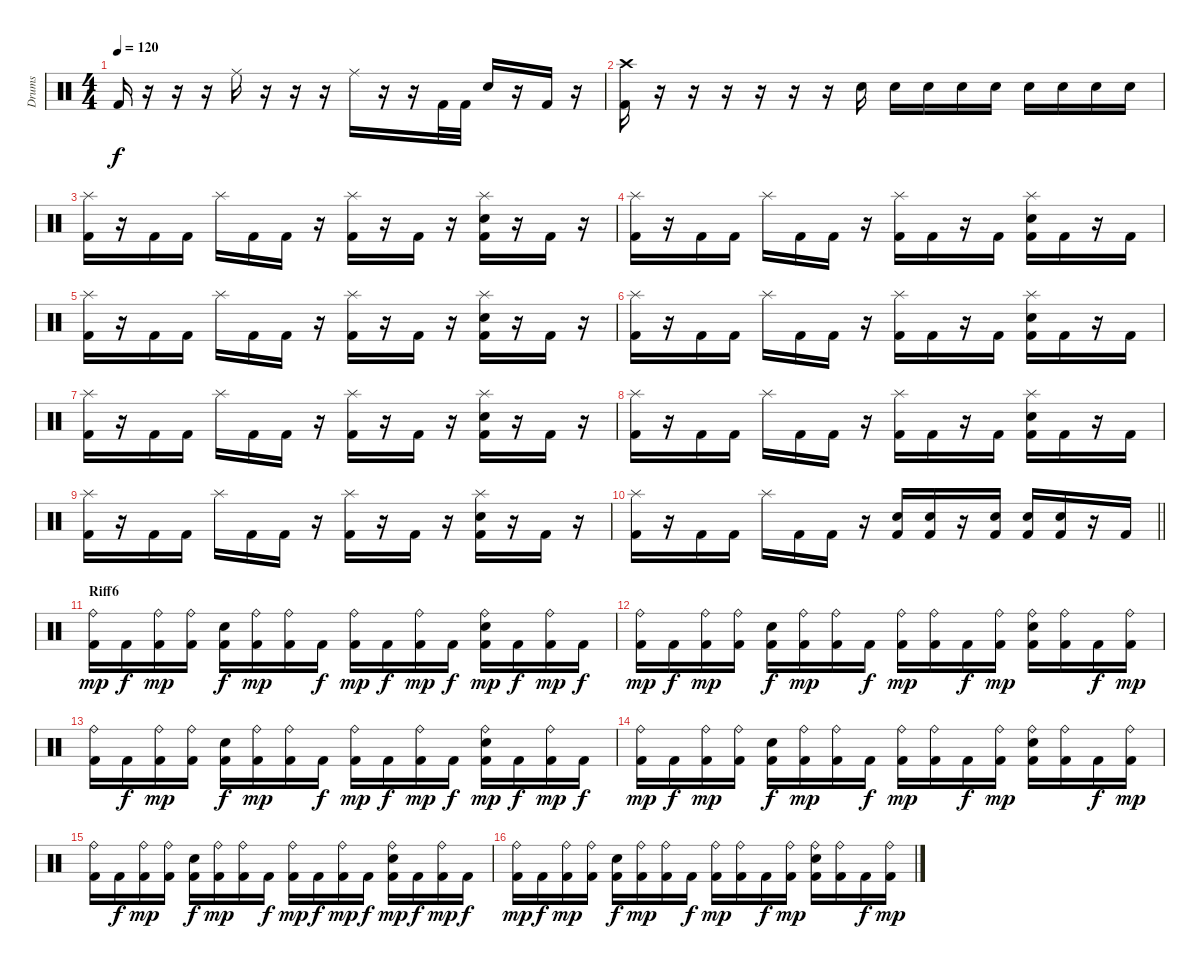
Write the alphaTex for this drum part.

\track ("Drums" "Drums") {instrument percussion}
\staff {score}
\articulation defaults
\ts (4 4)
\tempo 120
\clef neutral
\ks c "Kick (hit) 2".16{dy f}
r.16 r.16 r.16 "Ride (middle)".16 r.16 r.16 r.16 "Ride (middle)".16 r.16 r.16 "Kick (hit) 2".32 "Kick (hit) 2".32 "Snare (hit) 2".16 r.16 "Kick (hit) 2".16 r.16 |
("Kick (hit) 2" "Crash high (hit)").16 r.16 r.16 r.16 r.16 r.16 r.16 "Snare (hit) 2".16 "Snare (hit) 2".16 "Snare (hit) 2".16 "Snare (hit) 2".16 "Snare (hit) 2".16 "Snare (hit) 2".16 "Snare (hit) 2".16 "Snare (hit) 2".16 "Snare (hit) 2".16 |
("Kick (hit) 2" "Splash (hit)").16 r.16 "Kick (hit) 2".16 "Kick (hit) 2".16 "Splash (hit)".16 "Kick (hit) 2".16 "Kick (hit) 2".16 r.16 ("Kick (hit) 2" "Splash (hit)").16 r.16 "Kick (hit) 2".16 r.16 ("Kick (hit) 2" "Splash (hit)" "Snare (hit) 2").16 r.16 "Kick (hit) 2".16 r.16 |
("Kick (hit) 2" "Splash (hit)").16 r.16 "Kick (hit) 2".16 "Kick (hit) 2".16 "Splash (hit)".16 "Kick (hit) 2".16 "Kick (hit) 2".16 r.16 ("Kick (hit) 2" "Splash (hit)").16 "Kick (hit) 2".16 r.16 "Kick (hit) 2".16 ("Kick (hit) 2" "Splash (hit)" "Snare (hit) 2").16 "Kick (hit) 2".16 r.16 "Kick (hit) 2".16 |
("Kick (hit) 2" "Splash (hit)").16 r.16 "Kick (hit) 2".16 "Kick (hit) 2".16 "Splash (hit)".16 "Kick (hit) 2".16 "Kick (hit) 2".16 r.16 ("Kick (hit) 2" "Splash (hit)").16 r.16 "Kick (hit) 2".16 r.16 ("Kick (hit) 2" "Splash (hit)" "Snare (hit) 2").16 r.16 "Kick (hit) 2".16 r.16 |
("Kick (hit) 2" "Splash (hit)").16 r.16 "Kick (hit) 2".16 "Kick (hit) 2".16 "Splash (hit)".16 "Kick (hit) 2".16 "Kick (hit) 2".16 r.16 ("Kick (hit) 2" "Splash (hit)").16 "Kick (hit) 2".16 r.16 "Kick (hit) 2".16 ("Kick (hit) 2" "Splash (hit)" "Snare (hit) 2").16 "Kick (hit) 2".16 r.16 "Kick (hit) 2".16 |
("Kick (hit) 2" "Splash (hit)").16 r.16 "Kick (hit) 2".16 "Kick (hit) 2".16 "Splash (hit)".16 "Kick (hit) 2".16 "Kick (hit) 2".16 r.16 ("Kick (hit) 2" "Splash (hit)").16 r.16 "Kick (hit) 2".16 r.16 ("Kick (hit) 2" "Splash (hit)" "Snare (hit) 2").16 r.16 "Kick (hit) 2".16 r.16 |
("Kick (hit) 2" "Splash (hit)").16 r.16 "Kick (hit) 2".16 "Kick (hit) 2".16 "Splash (hit)".16 "Kick (hit) 2".16 "Kick (hit) 2".16 r.16 ("Kick (hit) 2" "Splash (hit)").16 "Kick (hit) 2".16 r.16 "Kick (hit) 2".16 ("Kick (hit) 2" "Splash (hit)" "Snare (hit) 2").16 "Kick (hit) 2".16 r.16 "Kick (hit) 2".16 |
("Kick (hit) 2" "Splash (hit)").16 r.16 "Kick (hit) 2".16 "Kick (hit) 2".16 "Splash (hit)".16 "Kick (hit) 2".16 "Kick (hit) 2".16 r.16 ("Kick (hit) 2" "Splash (hit)").16 r.16 "Kick (hit) 2".16 r.16 ("Kick (hit) 2" "Splash (hit)" "Snare (hit) 2").16 r.16 "Kick (hit) 2".16 r.16 |
\barLineRight lightlight
("Kick (hit) 2" "Splash (hit)").16 r.16 "Kick (hit) 2".16 "Kick (hit) 2".16 "Splash (hit)".16 "Kick (hit) 2".16 "Kick (hit) 2".16 r.16 ("Kick (hit) 2" "Snare (hit) 2").16 ("Kick (hit) 2" "Snare (hit) 2").16 r.16 ("Kick (hit) 2" "Snare (hit) 2").16 ("Kick (hit) 2" "Snare (hit) 2").16 ("Kick (hit) 2" "Snare (hit) 2").16 r.16 "Kick (hit) 2".16 |
\section ("" "Riff6")
("Kick (hit) 2" "Ride (bell)").16{dy mp} "Kick (hit) 2".16{dy f} ("Kick (hit) 2" "Ride (bell)").16{dy mp} ("Kick (hit) 2" "Ride (bell)").16 ("Kick (hit) 2" "Snare (hit) 2").16{dy f} ("Kick (hit) 2" "Ride (bell)").16{dy mp} ("Kick (hit) 2" "Ride (bell)").16 "Kick (hit) 2".16{dy f} ("Kick (hit) 2" "Ride (bell)").16{dy mp} "Kick (hit) 2".16{dy f} ("Kick (hit) 2" "Ride (bell)").16{dy mp} "Kick (hit) 2".16{dy f} ("Kick (hit) 2" "Ride (bell)" "Snare (hit) 2").16{dy mp} "Kick (hit) 2".16{dy f} ("Kick (hit) 2" "Ride (bell)").16{dy mp} "Kick (hit) 2".16{dy f} |
("Kick (hit) 2" "Ride (bell)").16{dy mp} "Kick (hit) 2".16{dy f} ("Kick (hit) 2" "Ride (bell)").16{dy mp} ("Kick (hit) 2" "Ride (bell)").16 ("Kick (hit) 2" "Snare (hit) 2").16{dy f} ("Kick (hit) 2" "Ride (bell)").16{dy mp} ("Kick (hit) 2" "Ride (bell)").16 "Kick (hit) 2".16{dy f} ("Kick (hit) 2" "Ride (bell)").16{dy mp} ("Kick (hit) 2" "Ride (bell)").16 "Kick (hit) 2".16{dy f} ("Kick (hit) 2" "Ride (bell)").16{dy mp} ("Kick (hit) 2" "Ride (bell)" "Snare (hit) 2").16 ("Kick (hit) 2" "Ride (bell)").16 "Kick (hit) 2".16{dy f} ("Kick (hit) 2" "Ride (bell)").16{dy mp} |
("Kick (hit) 2" "Ride (bell)").16 "Kick (hit) 2".16{dy f} ("Kick (hit) 2" "Ride (bell)").16{dy mp} ("Kick (hit) 2" "Ride (bell)").16 ("Kick (hit) 2" "Snare (hit) 2").16{dy f} ("Kick (hit) 2" "Ride (bell)").16{dy mp} ("Kick (hit) 2" "Ride (bell)").16 "Kick (hit) 2".16{dy f} ("Kick (hit) 2" "Ride (bell)").16{dy mp} "Kick (hit) 2".16{dy f} ("Kick (hit) 2" "Ride (bell)").16{dy mp} "Kick (hit) 2".16{dy f} ("Kick (hit) 2" "Ride (bell)" "Snare (hit) 2").16{dy mp} "Kick (hit) 2".16{dy f} ("Kick (hit) 2" "Ride (bell)").16{dy mp} "Kick (hit) 2".16{dy f} |
("Kick (hit) 2" "Ride (bell)").16{dy mp} "Kick (hit) 2".16{dy f} ("Kick (hit) 2" "Ride (bell)").16{dy mp} ("Kick (hit) 2" "Ride (bell)").16 ("Kick (hit) 2" "Snare (hit) 2").16{dy f} ("Kick (hit) 2" "Ride (bell)").16{dy mp} ("Kick (hit) 2" "Ride (bell)").16 "Kick (hit) 2".16{dy f} ("Kick (hit) 2" "Ride (bell)").16{dy mp} ("Kick (hit) 2" "Ride (bell)").16 "Kick (hit) 2".16{dy f} ("Kick (hit) 2" "Ride (bell)").16{dy mp} ("Kick (hit) 2" "Ride (bell)" "Snare (hit) 2").16 ("Kick (hit) 2" "Ride (bell)").16 "Kick (hit) 2".16{dy f} ("Kick (hit) 2" "Ride (bell)").16{dy mp} |
("Kick (hit) 2" "Ride (bell)").16 "Kick (hit) 2".16{dy f} ("Kick (hit) 2" "Ride (bell)").16{dy mp} ("Kick (hit) 2" "Ride (bell)").16 ("Kick (hit) 2" "Snare (hit) 2").16{dy f} ("Kick (hit) 2" "Ride (bell)").16{dy mp} ("Kick (hit) 2" "Ride (bell)").16 "Kick (hit) 2".16{dy f} ("Kick (hit) 2" "Ride (bell)").16{dy mp} "Kick (hit) 2".16{dy f} ("Kick (hit) 2" "Ride (bell)").16{dy mp} "Kick (hit) 2".16{dy f} ("Kick (hit) 2" "Ride (bell)" "Snare (hit) 2").16{dy mp} "Kick (hit) 2".16{dy f} ("Kick (hit) 2" "Ride (bell)").16{dy mp} "Kick (hit) 2".16{dy f} |
("Kick (hit) 2" "Ride (bell)").16{dy mp} "Kick (hit) 2".16{dy f} ("Kick (hit) 2" "Ride (bell)").16{dy mp} ("Kick (hit) 2" "Ride (bell)").16 ("Kick (hit) 2" "Snare (hit) 2").16{dy f} ("Kick (hit) 2" "Ride (bell)").16{dy mp} ("Kick (hit) 2" "Ride (bell)").16 "Kick (hit) 2".16{dy f} ("Kick (hit) 2" "Ride (bell)").16{dy mp} ("Kick (hit) 2" "Ride (bell)").16 "Kick (hit) 2".16{dy f} ("Kick (hit) 2" "Ride (bell)").16{dy mp} ("Kick (hit) 2" "Ride (bell)" "Snare (hit) 2").16 ("Kick (hit) 2" "Ride (bell)").16 "Kick (hit) 2".16{dy f} ("Kick (hit) 2" "Ride (bell)").16{dy mp}
